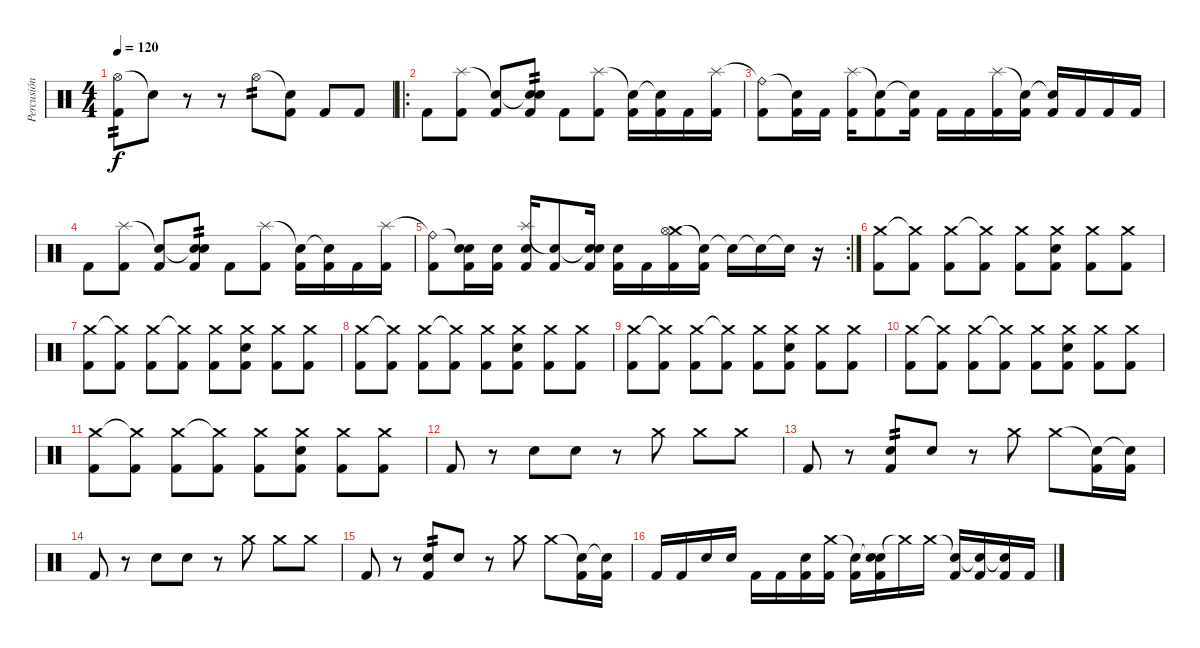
\track ("Percusión" "Percusión") {instrument percussion}
\staff {score}
\articulation defaults
\ts (4 4)
\tempo 120
\clef neutral
\ks c
("Hi-Hat (open)" "Kick (hit) 2").8{tp 2 dy f} "Snare (hit)"{t}.8 r.8 r.8 "Hi-Hat (open)".8{tp 2} ("Snare (hit)"{t} "Kick (hit) 2").8 "Kick (hit) 2".8 "Kick (hit) 2".8 |
\ro "Kick (hit) 2".8
("Splash (hit)" "Kick (hit) 2").8 ("Snare (hit)"{t} "Kick (hit) 2").8 ("Snare (hit)"{t} "Electric Snare (hit)" "Kick (hit) 2").8{tp 2} "Kick (hit) 2".8 ("Splash (hit)" "Kick (hit) 2").8 ("Snare (hit)"{t} "Kick (hit) 2").16 ("Snare (hit)"{t} "Kick (hit) 2").16 "Kick (hit) 2".16 ("Splash (hit)" "Kick (hit) 2").16 |
("Ride (bell)"{t} "Kick (hit) 2").8 ("Snare (hit)"{t} "Kick (hit) 2").16 "Kick (hit) 2".16 ("Splash (hit)" "Kick (hit) 2").16 ("Snare (hit)"{t} "Kick (hit) 2").8 ("Snare (hit)"{t} "Kick (hit) 2").16 "Kick (hit) 2".16 "Kick (hit) 2".16 ("Splash (hit)" "Kick (hit) 2").16 ("Snare (hit)"{t} "Kick (hit) 2").16 ("Snare (hit)"{t} "Kick (hit) 2").16 "Kick (hit) 2".16 "Kick (hit) 2".16 "Kick (hit) 2".16 |
"Kick (hit) 2".8 ("Splash (hit)" "Kick (hit) 2").8 ("Snare (hit)"{t} "Kick (hit) 2").8 ("Snare (hit)"{t} "Electric Snare (hit)" "Kick (hit) 2").8{tp 2} "Kick (hit) 2".8 ("Splash (hit)" "Kick (hit) 2").8 ("Snare (hit)"{t} "Kick (hit) 2").16 ("Snare (hit)"{t} "Kick (hit) 2").16 "Kick (hit) 2".16 ("Splash (hit)" "Kick (hit) 2").16 |
\rc 2
("Ride (bell)"{t} "Kick (hit) 2").8 ("Snare (hit)"{t} "Electric Snare (hit)" "Kick (hit) 2").16 ("Electric Snare (hit)" "Kick (hit) 2").16 ("Splash (hit)" "Electric Snare (hit)" "Kick (hit) 2").16 ("Snare (hit)"{t} "Kick (hit) 2").8 ("Snare (hit)"{t} "Electric Snare (hit)" "Kick (hit) 2").16 ("Electric Snare (hit)" "Kick (hit) 2").16 "Kick (hit) 2".16 ("Crash medium (hit)" "Hi-Hat (open)" "Kick (hit) 2").16 ("Snare (hit)"{t} "Kick (hit) 2").16 "Snare (hit)"{t}.16 "Snare (hit)"{t}.16 "Snare (hit)"{t}.16 r.16 |
("Crash medium (hit)" "Kick (hit) 2").8 ("Crash medium (hit)"{t} "Kick (hit) 2").8 ("Crash medium (hit)" "Kick (hit) 2").8 ("Crash medium (hit)"{t} "Kick (hit) 2").8 ("Crash medium (hit)" "Kick (hit) 2").8 ("Crash medium (hit)" "Electric Snare (hit)" "Kick (hit) 2").8 ("Crash medium (hit)" "Kick (hit) 2").8 ("Crash medium (hit)" "Kick (hit) 2").8 |
("Crash medium (hit)" "Kick (hit) 2").8 ("Crash medium (hit)"{t} "Kick (hit) 2").8 ("Crash medium (hit)" "Kick (hit) 2").8 ("Crash medium (hit)"{t} "Kick (hit) 2").8 ("Crash medium (hit)" "Kick (hit) 2").8 ("Crash medium (hit)" "Electric Snare (hit)" "Kick (hit) 2").8 ("Crash medium (hit)" "Kick (hit) 2").8 ("Crash medium (hit)" "Kick (hit) 2").8 |
("Crash medium (hit)" "Kick (hit) 2").8 ("Crash medium (hit)"{t} "Kick (hit) 2").8 ("Crash medium (hit)" "Kick (hit) 2").8 ("Crash medium (hit)"{t} "Kick (hit) 2").8 ("Crash medium (hit)" "Kick (hit) 2").8 ("Crash medium (hit)" "Electric Snare (hit)" "Kick (hit) 2").8 ("Crash medium (hit)" "Kick (hit) 2").8 ("Crash medium (hit)" "Kick (hit) 2").8 |
("Crash medium (hit)" "Kick (hit) 2").8 ("Crash medium (hit)"{t} "Kick (hit) 2").8 ("Crash medium (hit)" "Kick (hit) 2").8 ("Crash medium (hit)"{t} "Kick (hit) 2").8 ("Crash medium (hit)" "Kick (hit) 2").8 ("Crash medium (hit)" "Electric Snare (hit)" "Kick (hit) 2").8 ("Crash medium (hit)" "Kick (hit) 2").8 ("Crash medium (hit)" "Kick (hit) 2").8 |
("Crash medium (hit)" "Kick (hit) 2").8 ("Crash medium (hit)"{t} "Kick (hit) 2").8 ("Crash medium (hit)" "Kick (hit) 2").8 ("Crash medium (hit)"{t} "Kick (hit) 2").8 ("Crash medium (hit)" "Kick (hit) 2").8 ("Crash medium (hit)" "Electric Snare (hit)" "Kick (hit) 2").8 ("Crash medium (hit)" "Kick (hit) 2").8 ("Crash medium (hit)" "Kick (hit) 2").8 |
("Crash medium (hit)" "Kick (hit) 2").8 ("Crash medium (hit)"{t} "Kick (hit) 2").8 ("Crash medium (hit)" "Kick (hit) 2").8 ("Crash medium (hit)"{t} "Kick (hit) 2").8 ("Crash medium (hit)" "Kick (hit) 2").8 ("Crash medium (hit)" "Electric Snare (hit)" "Kick (hit) 2").8 ("Crash medium (hit)" "Kick (hit) 2").8 ("Crash medium (hit)" "Kick (hit) 2").8 |
"Kick (hit) 2".8 r.8 "Electric Snare (hit)".8 "Electric Snare (hit)".8 r.8 "Crash medium (hit)".8 "Crash medium (hit)".8 "Crash medium (hit)".8 |
"Kick (hit) 2".8 r.8 ("Electric Snare (hit)" "Kick (hit) 2").8{tp 2} "Electric Snare (hit)".8 r.8 "Crash medium (hit)".8 "Crash medium (hit)".8 ("Snare (hit)"{t} "Kick (hit) 2").16 ("Snare (hit)"{t} "Kick (hit) 2").16 |
"Kick (hit) 2".8 r.8 "Electric Snare (hit)".8 "Electric Snare (hit)".8 r.8 "Crash medium (hit)".8 "Crash medium (hit)".8 "Crash medium (hit)".8 |
"Kick (hit) 2".8 r.8 ("Electric Snare (hit)" "Kick (hit) 2").8{tp 2} "Electric Snare (hit)".8 r.8 "Crash medium (hit)".8 "Crash medium (hit)".8 ("Snare (hit)"{t} "Kick (hit) 2").16 ("Snare (hit)"{t} "Kick (hit) 2").16 |
"Kick (hit) 2".16 "Kick (hit) 2".16 "Electric Snare (hit)".16 "Electric Snare (hit)".16 "Kick (hit) 2".16 "Kick (hit) 2".16 ("Electric Snare (hit)" "Kick (hit) 2").16 ("Crash medium (hit)" "Kick (hit) 2").16 ("Snare (hit)"{t} "Kick (hit) 2").16 ("Snare (hit)"{t} "Electric Snare (hit)" "Kick (hit) 2").16 "Crash medium (hit)"{t}.16 "Crash medium (hit)".16 ("Snare (hit)"{t} "Kick (hit) 2").16 ("Snare (hit)"{t} "Kick (hit) 2").16 ("Snare (hit)"{t} "Kick (hit) 2").16 "Kick (hit) 2".16
